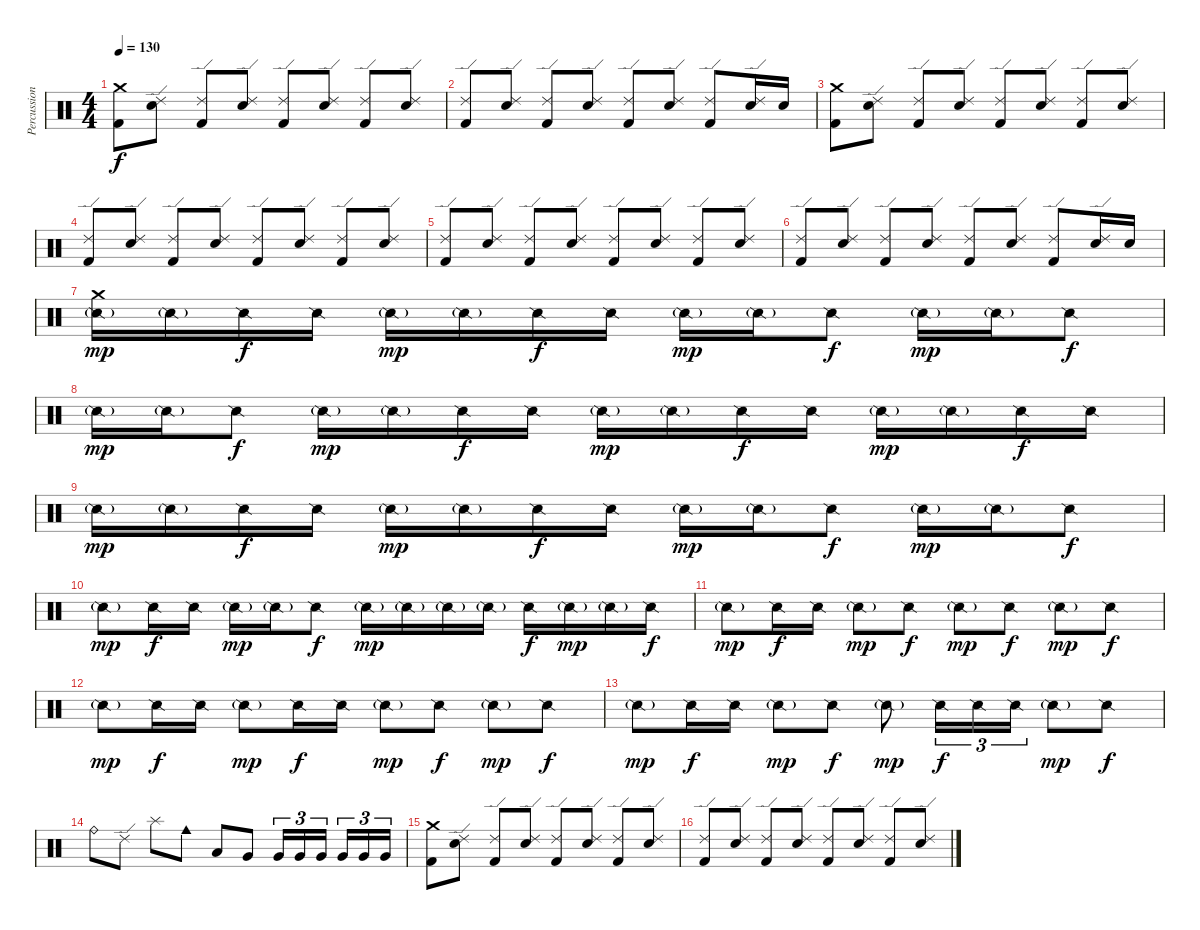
\track ("Percussion" "Percussion") {instrument percussion}
\staff {score}
\articulation defaults
\ts (4 4)
\tempo 130
\clef neutral
\ks c
("Crash medium (hit)" "Kick (hit) 2").8{dy f} ("Ride (edge) 2" "Electric Snare (hit)").8 ("Ride (edge) 2" "Kick (hit) 2").8 ("Ride (edge) 2" "Electric Snare (hit)").8 ("Ride (edge) 2" "Kick (hit) 2").8 ("Ride (edge) 2" "Electric Snare (hit)").8 ("Ride (edge) 2" "Kick (hit) 2").8 ("Ride (edge) 2" "Electric Snare (hit)").8 |
("Ride (edge) 2" "Kick (hit) 2").8 ("Ride (edge) 2" "Electric Snare (hit)").8 ("Ride (edge) 2" "Kick (hit) 2").8 ("Ride (edge) 2" "Electric Snare (hit)").8 ("Ride (edge) 2" "Kick (hit) 2").8 ("Ride (edge) 2" "Electric Snare (hit)").8 ("Ride (edge) 2" "Kick (hit) 2").8 ("Ride (edge) 2" "Electric Snare (hit)").16 "Electric Snare (hit)".16 |
("Crash medium (hit)" "Kick (hit) 2").8 ("Ride (edge) 2" "Electric Snare (hit)").8 ("Ride (edge) 2" "Kick (hit) 2").8 ("Ride (edge) 2" "Electric Snare (hit)").8 ("Ride (edge) 2" "Kick (hit) 2").8 ("Ride (edge) 2" "Electric Snare (hit)").8 ("Ride (edge) 2" "Kick (hit) 2").8 ("Ride (edge) 2" "Electric Snare (hit)").8 |
("Ride (edge) 2" "Kick (hit) 2").8 ("Ride (edge) 2" "Electric Snare (hit)").8 ("Ride (edge) 2" "Kick (hit) 2").8 ("Ride (edge) 2" "Electric Snare (hit)").8 ("Ride (edge) 2" "Kick (hit) 2").8 ("Ride (edge) 2" "Electric Snare (hit)").8 ("Ride (edge) 2" "Kick (hit) 2").8 ("Ride (edge) 2" "Electric Snare (hit)").8 |
("Ride (edge) 2" "Kick (hit) 2").8 ("Ride (edge) 2" "Electric Snare (hit)").8 ("Ride (edge) 2" "Kick (hit) 2").8 ("Ride (edge) 2" "Electric Snare (hit)").8 ("Ride (edge) 2" "Kick (hit) 2").8 ("Ride (edge) 2" "Electric Snare (hit)").8 ("Ride (edge) 2" "Kick (hit) 2").8 ("Ride (edge) 2" "Electric Snare (hit)").8 |
("Ride (edge) 2" "Kick (hit) 2").8 ("Ride (edge) 2" "Electric Snare (hit)").8 ("Ride (edge) 2" "Kick (hit) 2").8 ("Ride (edge) 2" "Electric Snare (hit)").8 ("Ride (edge) 2" "Kick (hit) 2").8 ("Ride (edge) 2" "Electric Snare (hit)").8 ("Ride (edge) 2" "Kick (hit) 2").8 ("Ride (edge) 2" "Electric Snare (hit)").16 "Electric Snare (hit)".16 |
("Crash medium (hit)" "Snare (side stick) 2"{g}).16{dy mp} "Snare (side stick) 2"{g}.16 "Snare (side stick) 2".16{dy f} "Snare (side stick) 2".16 "Snare (side stick) 2"{g}.16{dy mp} "Snare (side stick) 2"{g}.16 "Snare (side stick) 2".16{dy f} "Snare (side stick) 2".16 "Snare (side stick) 2"{g}.16{dy mp} "Snare (side stick) 2"{g}.16 "Snare (side stick) 2".8{dy f} "Snare (side stick) 2"{g}.16{dy mp} "Snare (side stick) 2"{g}.16 "Snare (side stick) 2".8{dy f} |
"Snare (side stick) 2"{g}.16{dy mp} "Snare (side stick) 2"{g}.16 "Snare (side stick) 2".8{dy f} "Snare (side stick) 2"{g}.16{dy mp} "Snare (side stick) 2"{g}.16 "Snare (side stick) 2".16{dy f} "Snare (side stick) 2".16 "Snare (side stick) 2"{g}.16{dy mp} "Snare (side stick) 2"{g}.16 "Snare (side stick) 2".16{dy f} "Snare (side stick) 2".16 "Snare (side stick) 2"{g}.16{dy mp} "Snare (side stick) 2"{g}.16 "Snare (side stick) 2".16{dy f} "Snare (side stick) 2".16 |
"Snare (side stick) 2"{g}.16{dy mp} "Snare (side stick) 2"{g}.16 "Snare (side stick) 2".16{dy f} "Snare (side stick) 2".16 "Snare (side stick) 2"{g}.16{dy mp} "Snare (side stick) 2"{g}.16 "Snare (side stick) 2".16{dy f} "Snare (side stick) 2".16 "Snare (side stick) 2"{g}.16{dy mp} "Snare (side stick) 2"{g}.16 "Snare (side stick) 2".8{dy f} "Snare (side stick) 2"{g}.16{dy mp} "Snare (side stick) 2"{g}.16 "Snare (side stick) 2".8{dy f} |
"Snare (side stick) 2"{g}.8{dy mp} "Snare (side stick) 2".16{dy f} "Snare (side stick) 2".16 "Snare (side stick) 2"{g}.16{dy mp} "Snare (side stick) 2"{g}.16 "Snare (side stick) 2".8{dy f} "Snare (side stick) 2"{g}.16{dy mp} "Snare (side stick) 2"{g}.16 "Snare (side stick) 2"{g}.16 "Snare (side stick) 2"{g}.16 "Snare (side stick) 2".16{dy f} "Snare (side stick) 2"{g}.16{dy mp} "Snare (side stick) 2"{g}.16 "Snare (side stick) 2".16{dy f} |
"Snare (side stick) 2"{g}.8{dy mp} "Snare (side stick) 2".16{dy f} "Snare (side stick) 2".16 "Snare (side stick) 2"{g}.8{dy mp} "Snare (side stick) 2".8{dy f} "Snare (side stick) 2"{g}.8{dy mp} "Snare (side stick) 2".8{dy f} "Snare (side stick) 2"{g}.8{dy mp} "Snare (side stick) 2".8{dy f} |
"Snare (side stick) 2"{g}.8{dy mp} "Snare (side stick) 2".16{dy f} "Snare (side stick) 2".16 "Snare (side stick) 2"{g}.8{dy mp} "Snare (side stick) 2".16{dy f} "Snare (side stick) 2".16 "Snare (side stick) 2"{g}.8{dy mp} "Snare (side stick) 2".8{dy f} "Snare (side stick) 2"{g}.8{dy mp} "Snare (side stick) 2".8{dy f} |
"Snare (side stick) 2"{g}.8{dy mp} "Snare (side stick) 2".16{dy f} "Snare (side stick) 2".16 "Snare (side stick) 2"{g}.8{dy mp} "Snare (side stick) 2".8{dy f} "Snare (side stick) 2"{g}.8{dy mp} "Snare (side stick) 2".16{tu (3 2) dy f} "Snare (side stick) 2".16{tu (3 2)} "Snare (side stick) 2".16{tu (3 2)} "Snare (side stick) 2"{g}.8{dy mp} "Snare (side stick) 2".8{dy f} |
"Ride (bell)".8 "Ride (edge) 2".8 "Splash (hit)".8 "Cowbell medium (hit)".8 "Low Tom (hit)".8 "Very Low Tom (hit)".8 "Very Low Tom (hit)".16{tu (3 2)} "Very Low Tom (hit)".16{tu (3 2)} "Very Low Tom (hit)".16{tu (3 2)} "Very Low Tom (hit)".16{tu (3 2)} "Very Low Tom (hit)".16{tu (3 2)} "Very Low Tom (hit)".16{tu (3 2)} |
("Crash medium (hit)" "Kick (hit) 2").8 ("Ride (edge) 2" "Electric Snare (hit)").8 ("Ride (edge) 2" "Kick (hit) 2").8 ("Ride (edge) 2" "Electric Snare (hit)").8 ("Ride (edge) 2" "Kick (hit) 2").8 ("Ride (edge) 2" "Electric Snare (hit)").8 ("Ride (edge) 2" "Kick (hit) 2").8 ("Ride (edge) 2" "Electric Snare (hit)").8 |
("Ride (edge) 2" "Kick (hit) 2").8 ("Ride (edge) 2" "Electric Snare (hit)").8 ("Ride (edge) 2" "Kick (hit) 2").8 ("Ride (edge) 2" "Electric Snare (hit)").8 ("Ride (edge) 2" "Kick (hit) 2").8 ("Ride (edge) 2" "Electric Snare (hit)").8 ("Ride (edge) 2" "Kick (hit) 2").8 ("Ride (edge) 2" "Electric Snare (hit)").8
